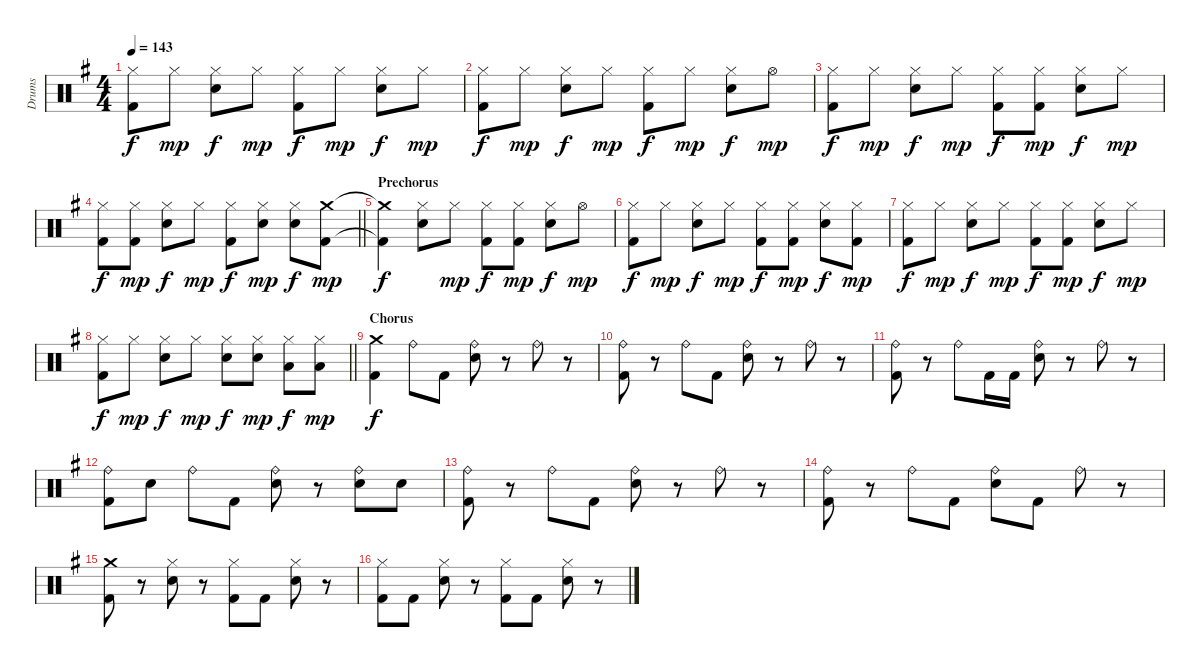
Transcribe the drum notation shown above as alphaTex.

\track ("Drums" "Drums") {instrument percussion}
\staff {score}
\articulation defaults
\ts (4 4)
\tempo 143
\clef neutral
\ks g
("Hi-Hat (closed)" "Kick (hit) 2").8{dy f} "Hi-Hat (closed)".8{dy mp} ("Hi-Hat (closed)" "Electric Snare (hit)").8{dy f} "Hi-Hat (closed)".8{dy mp} ("Hi-Hat (closed)" "Kick (hit) 2").8{dy f} "Hi-Hat (closed)".8{dy mp} ("Hi-Hat (closed)" "Electric Snare (hit)").8{dy f} "Hi-Hat (closed)".8{dy mp} |
("Hi-Hat (closed)" "Kick (hit) 2").8{dy f} "Hi-Hat (closed)".8{dy mp} ("Hi-Hat (closed)" "Electric Snare (hit)").8{dy f} "Hi-Hat (closed)".8{dy mp} ("Hi-Hat (closed)" "Kick (hit) 2").8{dy f} "Hi-Hat (closed)".8{dy mp} ("Hi-Hat (closed)" "Electric Snare (hit)").8{dy f} "Hi-Hat (open)".8{dy mp} |
("Hi-Hat (closed)" "Kick (hit) 2").8{dy f} "Hi-Hat (closed)".8{dy mp} ("Hi-Hat (closed)" "Electric Snare (hit)").8{dy f} "Hi-Hat (closed)".8{dy mp} ("Hi-Hat (closed)" "Kick (hit) 2").8{dy f} ("Hi-Hat (closed)" "Kick (hit) 2").8{dy mp} ("Hi-Hat (closed)" "Electric Snare (hit)").8{dy f} "Hi-Hat (closed)".8{dy mp} |
\barLineRight lightlight
("Hi-Hat (closed)" "Kick (hit) 2").8{dy f} ("Hi-Hat (closed)" "Kick (hit) 2").8{dy mp} ("Hi-Hat (closed)" "Electric Snare (hit)").8{dy f} "Hi-Hat (closed)".8{dy mp} ("Hi-Hat (closed)" "Kick (hit) 2").8{dy f} ("Hi-Hat (closed)" "Electric Snare (hit)").8{dy mp} ("Hi-Hat (closed)" "Electric Snare (hit)").8{dy f} ("Crash medium (hit)" "Kick (hit) 2").8{dy mp} |
\section ("" "Prechorus")
("Crash medium (hit)"{t} "Kick (hit) 2"{t}).4{dy f} ("Hi-Hat (closed)" "Electric Snare (hit)").8 "Hi-Hat (closed)".8{dy mp} ("Hi-Hat (closed)" "Kick (hit) 2").8{dy f} ("Hi-Hat (closed)" "Kick (hit) 2").8{dy mp} ("Hi-Hat (closed)" "Electric Snare (hit)").8{dy f} "Hi-Hat (open)".8{dy mp} |
("Hi-Hat (closed)" "Kick (hit) 2").8{dy f} "Hi-Hat (closed)".8{dy mp} ("Hi-Hat (closed)" "Electric Snare (hit)").8{dy f} "Hi-Hat (closed)".8{dy mp} ("Hi-Hat (closed)" "Kick (hit) 2").8{dy f} ("Hi-Hat (closed)" "Kick (hit) 2").8{dy mp} ("Hi-Hat (closed)" "Electric Snare (hit)").8{dy f} ("Hi-Hat (closed)" "Kick (hit) 2").8{dy mp} |
("Hi-Hat (closed)" "Kick (hit) 2").8{dy f} "Hi-Hat (closed)".8{dy mp} ("Hi-Hat (closed)" "Electric Snare (hit)").8{dy f} "Hi-Hat (closed)".8{dy mp} ("Hi-Hat (closed)" "Kick (hit) 2").8{dy f} ("Hi-Hat (closed)" "Kick (hit) 2").8{dy mp} ("Hi-Hat (closed)" "Electric Snare (hit)").8{dy f} "Hi-Hat (closed)".8{dy mp} |
\barLineRight lightlight
("Hi-Hat (closed)" "Kick (hit) 2").8{dy f} "Hi-Hat (closed)".8{dy mp} ("Hi-Hat (closed)" "Electric Snare (hit)").8{dy f} "Hi-Hat (closed)".8{dy mp} ("Hi-Hat (closed)" "Electric Snare (hit)").8{dy f} ("Hi-Hat (closed)" "Electric Snare (hit)").8{dy mp} ("Hi-Hat (closed)" "Low Tom (hit)").8{dy f} ("Hi-Hat (closed)" "Low Tom (hit)").8{dy mp} |
\section ("" "Chorus")
("Crash medium (hit)" "Kick (hit) 2").4{dy f} "Ride (bell)".8 "Kick (hit) 2".8 ("Ride (bell)" "Electric Snare (hit)").8 r.8 "Ride (bell)".8 r.8 |
("Ride (bell)" "Kick (hit) 2").8 r.8 "Ride (bell)".8 "Kick (hit) 2".8 ("Ride (bell)" "Electric Snare (hit)").8 r.8 "Ride (bell)".8 r.8 |
("Ride (bell)" "Kick (hit) 2").8 r.8 "Ride (bell)".8 "Kick (hit) 2".16 "Kick (hit) 2".16 ("Ride (bell)" "Electric Snare (hit)").8 r.8 "Ride (bell)".8 r.8 |
("Ride (bell)" "Kick (hit) 2").8 "Electric Snare (hit)".8 "Ride (bell)".8 "Kick (hit) 2".8 ("Ride (bell)" "Electric Snare (hit)").8 r.8 ("Ride (bell)" "Electric Snare (hit)").8 "Electric Snare (hit)".8 |
("Ride (bell)" "Kick (hit) 2").8 r.8 "Ride (bell)".8 "Kick (hit) 2".8 ("Ride (bell)" "Electric Snare (hit)").8 r.8 "Ride (bell)".8 r.8 |
("Ride (bell)" "Kick (hit) 2").8 r.8 "Ride (bell)".8 "Kick (hit) 2".8 ("Ride (bell)" "Electric Snare (hit)").8 "Kick (hit) 2".8 "Ride (bell)".8 r.8 |
("Crash medium (hit)" "Kick (hit) 2").8 r.8 ("Hi-Hat (closed)" "Electric Snare (hit)").8 r.8 ("Hi-Hat (closed)" "Kick (hit) 2").8 "Kick (hit) 2".8 ("Hi-Hat (closed)" "Electric Snare (hit)").8 r.8 |
("Hi-Hat (closed)" "Kick (hit) 2").8 "Kick (hit) 2".8 ("Hi-Hat (closed)" "Electric Snare (hit)").8 r.8 ("Hi-Hat (closed)" "Kick (hit) 2").8 "Kick (hit) 2".8 ("Hi-Hat (closed)" "Electric Snare (hit)").8 r.8
